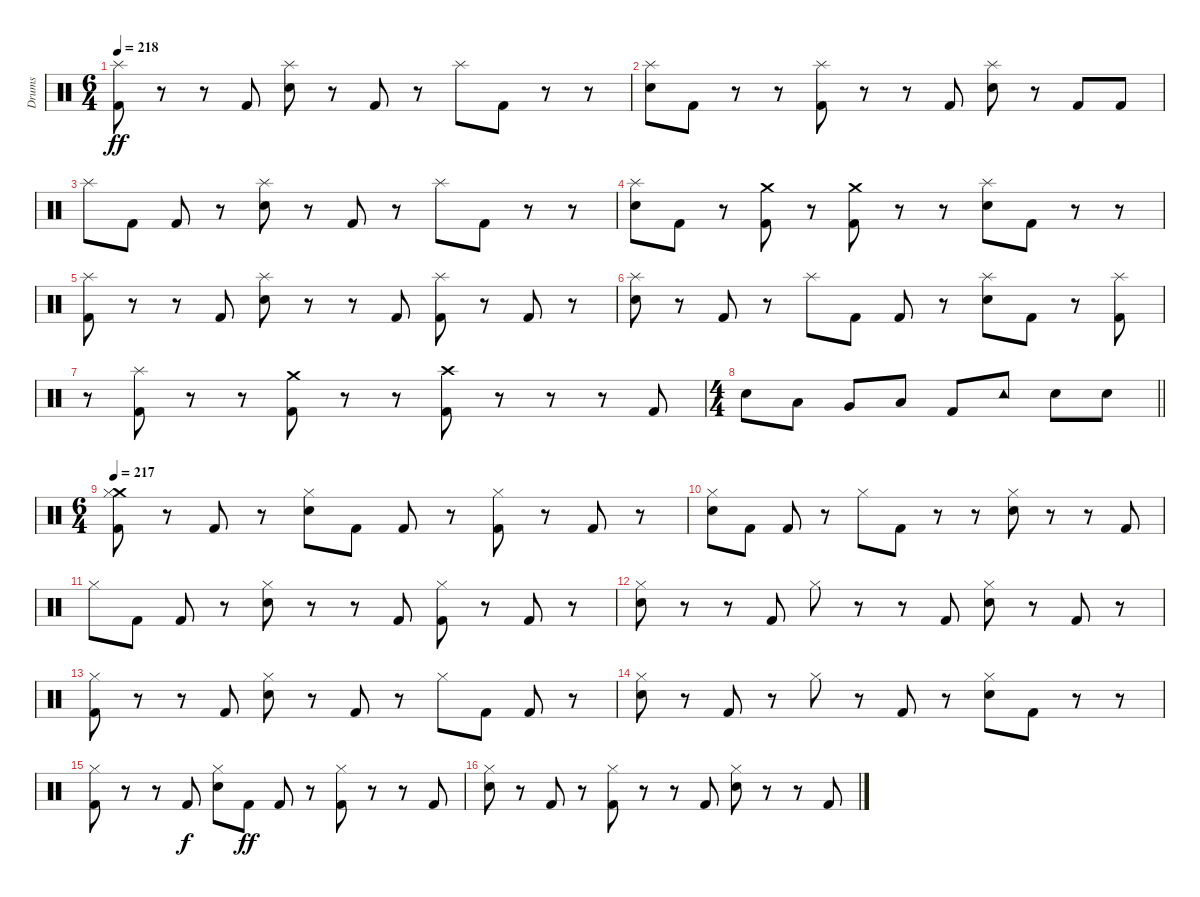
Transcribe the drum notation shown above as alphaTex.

\track ("Drums" "Drums") {instrument percussion}
\staff {score}
\articulation defaults
\ts (6 4)
\section ("" "")
\tempo 218
\clef neutral
\ks c
("Splash (hit)" "Kick (hit) 2").8{dy ff} r.8 r.8 "Kick (hit) 2".8 ("Splash (hit)" "Electric Snare (hit)").8 r.8 "Kick (hit) 2".8 r.8 "Splash (hit)".8 "Kick (hit) 2".8 r.8 r.8 |
("Splash (hit)" "Electric Snare (hit)").8 "Kick (hit) 2".8 r.8 r.8 ("Splash (hit)" "Kick (hit) 2").8 r.8 r.8 "Kick (hit) 2".8 ("Splash (hit)" "Electric Snare (hit)").8 r.8 "Kick (hit) 2".8 "Kick (hit) 2".8 |
"Splash (hit)".8 "Kick (hit) 2".8 "Kick (hit) 2".8 r.8 ("Splash (hit)" "Electric Snare (hit)").8 r.8 "Kick (hit) 2".8 r.8 "Splash (hit)".8 "Kick (hit) 2".8 r.8 r.8 |
("Splash (hit)" "Electric Snare (hit)").8 "Kick (hit) 2".8 r.8 ("Crash medium (hit)" "Kick (hit) 2").8 r.8 ("Crash medium (hit)" "Kick (hit) 2").8 r.8 r.8 ("Splash (hit)" "Electric Snare (hit)").8 "Kick (hit) 2".8 r.8 r.8 |
("Splash (hit)" "Kick (hit) 2").8 r.8 r.8 "Kick (hit) 2".8 ("Splash (hit)" "Electric Snare (hit)").8 r.8 r.8 "Kick (hit) 2".8 ("Splash (hit)" "Kick (hit) 2").8 r.8 "Kick (hit) 2".8 r.8 |
("Splash (hit)" "Electric Snare (hit)").8 r.8 "Kick (hit) 2".8 r.8 "Splash (hit)".8 "Kick (hit) 2".8 "Kick (hit) 2".8 r.8 ("Splash (hit)" "Electric Snare (hit)").8 "Kick (hit) 2".8 r.8 ("Splash (hit)" "Kick (hit) 2").8 |
r.8 ("Splash (hit)" "Kick (hit) 2").8 r.8 r.8 ("Crash medium (hit)" "Kick (hit) 2").8 r.8 r.8 ("Crash high (hit)" "Kick (hit) 2").8 r.8 r.8 r.8 "Kick (hit) 2".8 |
\ts (4 4)
\barLineRight lightlight "Electric Snare (hit)".8 "Low Tom (hit)".8 "Very Low Tom (hit)".8 "Low Floor Tom (hit)".8 "Kick (hit) 2".8 "Tambourine (hit)".8 "Electric Snare (hit)".8 "Electric Snare (hit)".8
|
\ts (6 4)
\section ("" "")
\tempo 217
("Crash medium (hit)" "Hi-Hat (closed)" "Kick (hit) 2").8 r.8 "Kick (hit) 2".8 r.8 ("Hi-Hat (closed)" "Electric Snare (hit)").8 "Kick (hit) 2".8 "Kick (hit) 2".8 r.8 ("Hi-Hat (closed)" "Kick (hit) 2").8 r.8 "Kick (hit) 2".8 r.8 |
("Hi-Hat (closed)" "Electric Snare (hit)").8 "Kick (hit) 2".8 "Kick (hit) 2".8 r.8 "Hi-Hat (closed)".8 "Kick (hit) 2".8 r.8 r.8 ("Hi-Hat (closed)" "Electric Snare (hit)").8 r.8 r.8 "Kick (hit) 2".8 |
"Hi-Hat (closed)".8 "Kick (hit) 2".8 "Kick (hit) 2".8 r.8 ("Hi-Hat (closed)" "Electric Snare (hit)").8 r.8 r.8 "Kick (hit) 2".8 ("Hi-Hat (closed)" "Kick (hit) 2").8 r.8 "Kick (hit) 2".8 r.8 |
("Hi-Hat (closed)" "Electric Snare (hit)").8 r.8 r.8 "Kick (hit) 2".8 "Hi-Hat (closed)".8 r.8 r.8 "Kick (hit) 2".8 ("Hi-Hat (closed)" "Electric Snare (hit)").8 r.8 "Kick (hit) 2".8 r.8 |
("Hi-Hat (closed)" "Kick (hit) 2").8 r.8 r.8 "Kick (hit) 2".8 ("Hi-Hat (closed)" "Electric Snare (hit)").8 r.8 "Kick (hit) 2".8 r.8 "Hi-Hat (closed)".8 "Kick (hit) 2".8 "Kick (hit) 2".8 r.8 |
("Hi-Hat (closed)" "Electric Snare (hit)").8 r.8 "Kick (hit) 2".8 r.8 "Hi-Hat (closed)".8 r.8 "Kick (hit) 2".8 r.8 ("Hi-Hat (closed)" "Electric Snare (hit)").8 "Kick (hit) 2".8 r.8 r.8 |
("Hi-Hat (closed)" "Kick (hit) 2").8 r.8 r.8 "Kick (hit) 2".8{dy f} ("Hi-Hat (closed)" "Electric Snare (hit)").8 "Kick (hit) 2".8{dy ff} "Kick (hit) 2".8 r.8 ("Hi-Hat (closed)" "Kick (hit) 2").8 r.8 r.8 "Kick (hit) 2".8 |
("Hi-Hat (closed)" "Electric Snare (hit)").8 r.8 "Kick (hit) 2".8 r.8 ("Hi-Hat (closed)" "Kick (hit) 2").8 r.8 r.8 "Kick (hit) 2".8 ("Hi-Hat (closed)" "Electric Snare (hit)").8 r.8 r.8 "Kick (hit) 2".8
